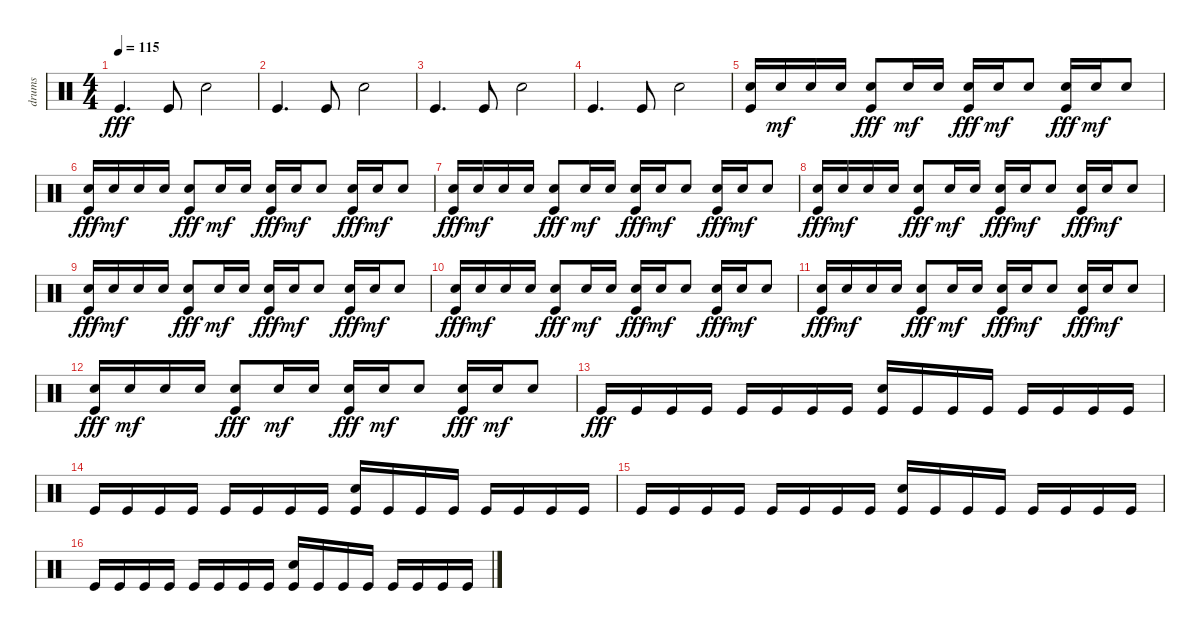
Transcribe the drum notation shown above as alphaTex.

\track ("drums" "drums") {instrument percussion}
\staff {score}
\articulation defaults
\ts (4 4)
\tempo 115
\clef neutral
\ks c "Kick (hit)".4{d dy fff} "Kick (hit)".8 "Electric Snare (hit)".2
|
"Kick (hit)".4{d} "Kick (hit)".8 "Electric Snare (hit)".2 |
"Kick (hit)".4{d} "Kick (hit)".8 "Electric Snare (hit)".2 |
"Kick (hit)".4{d} "Kick (hit)".8 "Electric Snare (hit)".2 |
("Electric Snare (hit)" "Kick (hit)").16 "Electric Snare (hit)".16{dy mf} "Electric Snare (hit)".16 "Electric Snare (hit)".16 ("Electric Snare (hit)" "Kick (hit)").8{dy fff} "Electric Snare (hit)".16{dy mf} "Electric Snare (hit)".16 ("Electric Snare (hit)" "Kick (hit)").16{dy fff} "Electric Snare (hit)".16{dy mf} "Electric Snare (hit)".8 ("Electric Snare (hit)" "Kick (hit)").16{dy fff} "Electric Snare (hit)".16{dy mf} "Electric Snare (hit)".8 |
("Electric Snare (hit)" "Kick (hit)").16{dy fff} "Electric Snare (hit)".16{dy mf} "Electric Snare (hit)".16 "Electric Snare (hit)".16 ("Electric Snare (hit)" "Kick (hit)").8{dy fff} "Electric Snare (hit)".16{dy mf} "Electric Snare (hit)".16 ("Electric Snare (hit)" "Kick (hit)").16{dy fff} "Electric Snare (hit)".16{dy mf} "Electric Snare (hit)".8 ("Electric Snare (hit)" "Kick (hit)").16{dy fff} "Electric Snare (hit)".16{dy mf} "Electric Snare (hit)".8 |
("Electric Snare (hit)" "Kick (hit)").16{dy fff} "Electric Snare (hit)".16{dy mf} "Electric Snare (hit)".16 "Electric Snare (hit)".16 ("Electric Snare (hit)" "Kick (hit)").8{dy fff} "Electric Snare (hit)".16{dy mf} "Electric Snare (hit)".16 ("Electric Snare (hit)" "Kick (hit)").16{dy fff} "Electric Snare (hit)".16{dy mf} "Electric Snare (hit)".8 ("Electric Snare (hit)" "Kick (hit)").16{dy fff} "Electric Snare (hit)".16{dy mf} "Electric Snare (hit)".8 |
("Electric Snare (hit)" "Kick (hit)").16{dy fff} "Electric Snare (hit)".16{dy mf} "Electric Snare (hit)".16 "Electric Snare (hit)".16 ("Electric Snare (hit)" "Kick (hit)").8{dy fff} "Electric Snare (hit)".16{dy mf} "Electric Snare (hit)".16 ("Electric Snare (hit)" "Kick (hit)").16{dy fff} "Electric Snare (hit)".16{dy mf} "Electric Snare (hit)".8 ("Electric Snare (hit)" "Kick (hit)").16{dy fff} "Electric Snare (hit)".16{dy mf} "Electric Snare (hit)".8 |
("Electric Snare (hit)" "Kick (hit)").16{dy fff} "Electric Snare (hit)".16{dy mf} "Electric Snare (hit)".16 "Electric Snare (hit)".16 ("Electric Snare (hit)" "Kick (hit)").8{dy fff} "Electric Snare (hit)".16{dy mf} "Electric Snare (hit)".16 ("Electric Snare (hit)" "Kick (hit)").16{dy fff} "Electric Snare (hit)".16{dy mf} "Electric Snare (hit)".8 ("Electric Snare (hit)" "Kick (hit)").16{dy fff} "Electric Snare (hit)".16{dy mf} "Electric Snare (hit)".8 |
("Electric Snare (hit)" "Kick (hit)").16{dy fff} "Electric Snare (hit)".16{dy mf} "Electric Snare (hit)".16 "Electric Snare (hit)".16 ("Electric Snare (hit)" "Kick (hit)").8{dy fff} "Electric Snare (hit)".16{dy mf} "Electric Snare (hit)".16 ("Electric Snare (hit)" "Kick (hit)").16{dy fff} "Electric Snare (hit)".16{dy mf} "Electric Snare (hit)".8 ("Electric Snare (hit)" "Kick (hit)").16{dy fff} "Electric Snare (hit)".16{dy mf} "Electric Snare (hit)".8 |
("Electric Snare (hit)" "Kick (hit)").16{dy fff} "Electric Snare (hit)".16{dy mf} "Electric Snare (hit)".16 "Electric Snare (hit)".16 ("Electric Snare (hit)" "Kick (hit)").8{dy fff} "Electric Snare (hit)".16{dy mf} "Electric Snare (hit)".16 ("Electric Snare (hit)" "Kick (hit)").16{dy fff} "Electric Snare (hit)".16{dy mf} "Electric Snare (hit)".8 ("Electric Snare (hit)" "Kick (hit)").16{dy fff} "Electric Snare (hit)".16{dy mf} "Electric Snare (hit)".8 |
("Electric Snare (hit)" "Kick (hit)").16{dy fff} "Electric Snare (hit)".16{dy mf} "Electric Snare (hit)".16 "Electric Snare (hit)".16 ("Electric Snare (hit)" "Kick (hit)").8{dy fff} "Electric Snare (hit)".16{dy mf} "Electric Snare (hit)".16 ("Electric Snare (hit)" "Kick (hit)").16{dy fff} "Electric Snare (hit)".16{dy mf} "Electric Snare (hit)".8 ("Electric Snare (hit)" "Kick (hit)").16{dy fff} "Electric Snare (hit)".16{dy mf} "Electric Snare (hit)".8 |
"Kick (hit)".16{dy fff} "Kick (hit)".16 "Kick (hit)".16 "Kick (hit)".16 "Kick (hit)".16 "Kick (hit)".16 "Kick (hit)".16 "Kick (hit)".16 ("Electric Snare (hit)" "Kick (hit)").16 "Kick (hit)".16 "Kick (hit)".16 "Kick (hit)".16 "Kick (hit)".16 "Kick (hit)".16 "Kick (hit)".16 "Kick (hit)".16 |
"Kick (hit)".16 "Kick (hit)".16 "Kick (hit)".16 "Kick (hit)".16 "Kick (hit)".16 "Kick (hit)".16 "Kick (hit)".16 "Kick (hit)".16 ("Electric Snare (hit)" "Kick (hit)").16 "Kick (hit)".16 "Kick (hit)".16 "Kick (hit)".16 "Kick (hit)".16 "Kick (hit)".16 "Kick (hit)".16 "Kick (hit)".16 |
"Kick (hit)".16 "Kick (hit)".16 "Kick (hit)".16 "Kick (hit)".16 "Kick (hit)".16 "Kick (hit)".16 "Kick (hit)".16 "Kick (hit)".16 ("Electric Snare (hit)" "Kick (hit)").16 "Kick (hit)".16 "Kick (hit)".16 "Kick (hit)".16 "Kick (hit)".16 "Kick (hit)".16 "Kick (hit)".16 "Kick (hit)".16 |
"Kick (hit)".16 "Kick (hit)".16 "Kick (hit)".16 "Kick (hit)".16 "Kick (hit)".16 "Kick (hit)".16 "Kick (hit)".16 "Kick (hit)".16 ("Electric Snare (hit)" "Kick (hit)").16 "Kick (hit)".16 "Kick (hit)".16 "Kick (hit)".16 "Kick (hit)".16 "Kick (hit)".16 "Kick (hit)".16 "Kick (hit)".16
